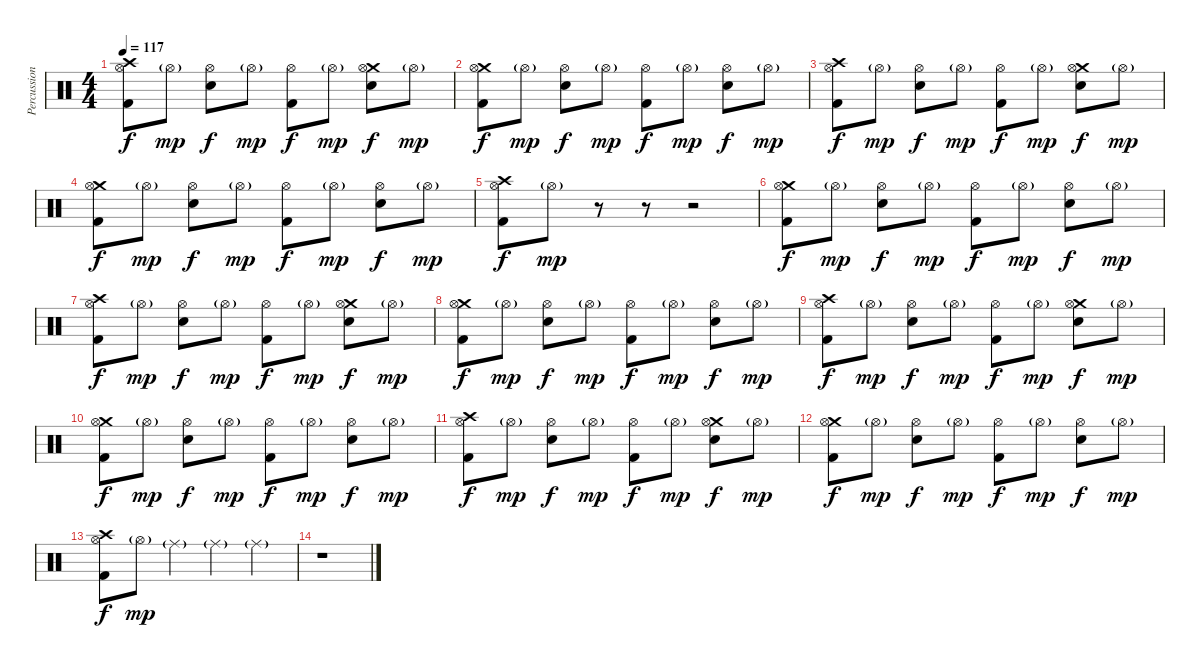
\track ("Percussion" "Percussion") {instrument percussion}
\staff {score}
\articulation defaults
\ts (4 4)
\tempo 117
\clef neutral
\ks c
("Crash high (hit)" "Hi-Hat (open)" "Kick (hit) 2").8{dy f} "Hi-Hat (open)"{g}.8{dy mp} ("Hi-Hat (open)" "Electric Snare (hit)").8{dy f} "Hi-Hat (open)"{g}.8{dy mp} ("Hi-Hat (open)" "Kick (hit) 2").8{dy f} "Hi-Hat (open)"{g}.8{dy mp} ("Crash medium (hit)" "Hi-Hat (open)" "Electric Snare (hit)").8{dy f} "Hi-Hat (open)"{g}.8{dy mp} |
("Crash medium (hit)" "Hi-Hat (open)" "Kick (hit) 2").8{dy f} "Hi-Hat (open)"{g}.8{dy mp} ("Hi-Hat (open)" "Electric Snare (hit)").8{dy f} "Hi-Hat (open)"{g}.8{dy mp} ("Hi-Hat (open)" "Kick (hit) 2").8{dy f} "Hi-Hat (open)"{g}.8{dy mp} ("Hi-Hat (open)" "Electric Snare (hit)").8{dy f} "Hi-Hat (open)"{g}.8{dy mp} |
("Crash high (hit)" "Hi-Hat (open)" "Kick (hit) 2").8{dy f} "Hi-Hat (open)"{g}.8{dy mp} ("Hi-Hat (open)" "Electric Snare (hit)").8{dy f} "Hi-Hat (open)"{g}.8{dy mp} ("Hi-Hat (open)" "Kick (hit) 2").8{dy f} "Hi-Hat (open)"{g}.8{dy mp} ("Crash medium (hit)" "Hi-Hat (open)" "Electric Snare (hit)").8{dy f} "Hi-Hat (open)"{g}.8{dy mp} |
("Crash medium (hit)" "Hi-Hat (open)" "Kick (hit) 2").8{dy f} "Hi-Hat (open)"{g}.8{dy mp} ("Hi-Hat (open)" "Electric Snare (hit)").8{dy f} "Hi-Hat (open)"{g}.8{dy mp} ("Hi-Hat (open)" "Kick (hit) 2").8{dy f} "Hi-Hat (open)"{g}.8{dy mp} ("Hi-Hat (open)" "Electric Snare (hit)").8{dy f} "Hi-Hat (open)"{g}.8{dy mp} |
("Crash high (hit)" "Hi-Hat (open)" "Kick (hit) 2").8{dy f} "Hi-Hat (open)"{g}.8{dy mp} r.8 r.8 r.2 |
("Crash medium (hit)" "Hi-Hat (open)" "Kick (hit) 2").8{dy f} "Hi-Hat (open)"{g}.8{dy mp} ("Hi-Hat (open)" "Electric Snare (hit)").8{dy f} "Hi-Hat (open)"{g}.8{dy mp} ("Hi-Hat (open)" "Kick (hit) 2").8{dy f} "Hi-Hat (open)"{g}.8{dy mp} ("Hi-Hat (open)" "Electric Snare (hit)").8{dy f} "Hi-Hat (open)"{g}.8{dy mp} |
("Crash high (hit)" "Hi-Hat (open)" "Kick (hit) 2").8{dy f} "Hi-Hat (open)"{g}.8{dy mp} ("Hi-Hat (open)" "Electric Snare (hit)").8{dy f} "Hi-Hat (open)"{g}.8{dy mp} ("Hi-Hat (open)" "Kick (hit) 2").8{dy f} "Hi-Hat (open)"{g}.8{dy mp} ("Crash medium (hit)" "Hi-Hat (open)" "Electric Snare (hit)").8{dy f} "Hi-Hat (open)"{g}.8{dy mp} |
("Crash medium (hit)" "Hi-Hat (open)" "Kick (hit) 2").8{dy f} "Hi-Hat (open)"{g}.8{dy mp} ("Hi-Hat (open)" "Electric Snare (hit)").8{dy f} "Hi-Hat (open)"{g}.8{dy mp} ("Hi-Hat (open)" "Kick (hit) 2").8{dy f} "Hi-Hat (open)"{g}.8{dy mp} ("Hi-Hat (open)" "Electric Snare (hit)").8{dy f} "Hi-Hat (open)"{g}.8{dy mp} |
("Crash high (hit)" "Hi-Hat (open)" "Kick (hit) 2").8{dy f} "Hi-Hat (open)"{g}.8{dy mp} ("Hi-Hat (open)" "Electric Snare (hit)").8{dy f} "Hi-Hat (open)"{g}.8{dy mp} ("Hi-Hat (open)" "Kick (hit) 2").8{dy f} "Hi-Hat (open)"{g}.8{dy mp} ("Crash medium (hit)" "Hi-Hat (open)" "Electric Snare (hit)").8{dy f} "Hi-Hat (open)"{g}.8{dy mp} |
("Crash medium (hit)" "Hi-Hat (open)" "Kick (hit) 2").8{dy f} "Hi-Hat (open)"{g}.8{dy mp} ("Hi-Hat (open)" "Electric Snare (hit)").8{dy f} "Hi-Hat (open)"{g}.8{dy mp} ("Hi-Hat (open)" "Kick (hit) 2").8{dy f} "Hi-Hat (open)"{g}.8{dy mp} ("Hi-Hat (open)" "Electric Snare (hit)").8{dy f} "Hi-Hat (open)"{g}.8{dy mp} |
("Crash high (hit)" "Hi-Hat (open)" "Kick (hit) 2").8{dy f} "Hi-Hat (open)"{g}.8{dy mp} ("Hi-Hat (open)" "Electric Snare (hit)").8{dy f} "Hi-Hat (open)"{g}.8{dy mp} ("Hi-Hat (open)" "Kick (hit) 2").8{dy f} "Hi-Hat (open)"{g}.8{dy mp} ("Crash medium (hit)" "Hi-Hat (open)" "Electric Snare (hit)").8{dy f} "Hi-Hat (open)"{g}.8{dy mp} |
("Crash medium (hit)" "Hi-Hat (open)" "Kick (hit) 2").8{dy f} "Hi-Hat (open)"{g}.8{dy mp} ("Hi-Hat (open)" "Electric Snare (hit)").8{dy f} "Hi-Hat (open)"{g}.8{dy mp} ("Hi-Hat (open)" "Kick (hit) 2").8{dy f} "Hi-Hat (open)"{g}.8{dy mp} ("Hi-Hat (open)" "Electric Snare (hit)").8{dy f} "Hi-Hat (open)"{g}.8{dy mp} |
("Crash high (hit)" "Hi-Hat (open)" "Kick (hit) 2").8{dy f} "Hi-Hat (open)"{g}.8{dy mp} "Ride (middle)"{g}.4 "Ride (middle)"{g}.4 "Ride (middle)"{g}.4 |
r.1
